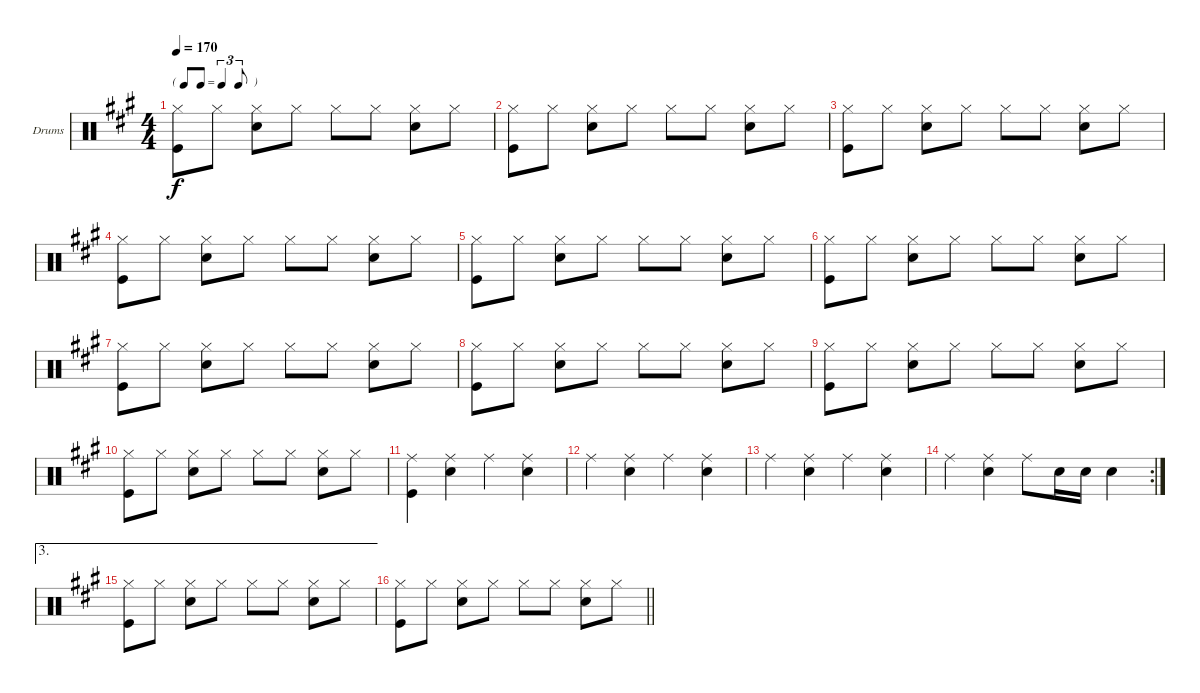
\bracketExtendMode groupsimilarinstruments
\firstSystemTrackNameOrientation horizontal
\otherSystemsTrackNameOrientation horizontal
\track ("Ringo" "Drums") {instrument percussion}
\staff {score}
\articulation defaults
\ts (4 4)
\tf triplet8th
\tempo 170
\clef neutral
\ks a
("Hi-Hat (closed)" "Kick (hit)").8{dy f} "Hi-Hat (closed)".8 ("Hi-Hat (closed)" "Snare (hit) 2").8 "Hi-Hat (closed)".8 "Hi-Hat (closed)".8 "Hi-Hat (closed)".8 ("Hi-Hat (closed)" "Snare (hit) 2").8 "Hi-Hat (closed)".8 |
("Hi-Hat (closed)" "Kick (hit)").8 "Hi-Hat (closed)".8 ("Hi-Hat (closed)" "Snare (hit) 2").8 "Hi-Hat (closed)".8 "Hi-Hat (closed)".8 "Hi-Hat (closed)".8 ("Hi-Hat (closed)" "Snare (hit) 2").8 "Hi-Hat (closed)".8 |
("Hi-Hat (closed)" "Kick (hit)").8 "Hi-Hat (closed)".8 ("Hi-Hat (closed)" "Snare (hit) 2").8 "Hi-Hat (closed)".8 "Hi-Hat (closed)".8 "Hi-Hat (closed)".8 ("Hi-Hat (closed)" "Snare (hit) 2").8 "Hi-Hat (closed)".8 |
("Hi-Hat (closed)" "Kick (hit)").8 "Hi-Hat (closed)".8 ("Hi-Hat (closed)" "Snare (hit) 2").8 "Hi-Hat (closed)".8 "Hi-Hat (closed)".8 "Hi-Hat (closed)".8 ("Hi-Hat (closed)" "Snare (hit) 2").8 "Hi-Hat (closed)".8 |
("Hi-Hat (closed)" "Kick (hit)").8 "Hi-Hat (closed)".8 ("Hi-Hat (closed)" "Snare (hit) 2").8 "Hi-Hat (closed)".8 "Hi-Hat (closed)".8 "Hi-Hat (closed)".8 ("Hi-Hat (closed)" "Snare (hit) 2").8 "Hi-Hat (closed)".8 |
("Hi-Hat (closed)" "Kick (hit)").8 "Hi-Hat (closed)".8 ("Hi-Hat (closed)" "Snare (hit) 2").8 "Hi-Hat (closed)".8 "Hi-Hat (closed)".8 "Hi-Hat (closed)".8 ("Hi-Hat (closed)" "Snare (hit) 2").8 "Hi-Hat (closed)".8 |
("Hi-Hat (closed)" "Kick (hit)").8 "Hi-Hat (closed)".8 ("Hi-Hat (closed)" "Snare (hit) 2").8 "Hi-Hat (closed)".8 "Hi-Hat (closed)".8 "Hi-Hat (closed)".8 ("Hi-Hat (closed)" "Snare (hit) 2").8 "Hi-Hat (closed)".8 |
("Hi-Hat (closed)" "Kick (hit)").8 "Hi-Hat (closed)".8 ("Hi-Hat (closed)" "Snare (hit) 2").8 "Hi-Hat (closed)".8 "Hi-Hat (closed)".8 "Hi-Hat (closed)".8 ("Hi-Hat (closed)" "Snare (hit) 2").8 "Hi-Hat (closed)".8 |
("Hi-Hat (closed)" "Kick (hit)").8 "Hi-Hat (closed)".8 ("Hi-Hat (closed)" "Snare (hit) 2").8 "Hi-Hat (closed)".8 "Hi-Hat (closed)".8 "Hi-Hat (closed)".8 ("Hi-Hat (closed)" "Snare (hit) 2").8 "Hi-Hat (closed)".8 |
("Hi-Hat (closed)" "Kick (hit)").8 "Hi-Hat (closed)".8 ("Hi-Hat (closed)" "Snare (hit) 2").8 "Hi-Hat (closed)".8 "Hi-Hat (closed)".8 "Hi-Hat (closed)".8 ("Hi-Hat (closed)" "Snare (hit) 2").8 "Hi-Hat (closed)".8 |
("Ride (middle)" "Kick (hit)").4 ("Ride (middle)" "Snare (hit) 2").4 "Ride (middle)".4 ("Ride (middle)" "Snare (hit) 2").4 |
"Ride (middle)".4 ("Ride (middle)" "Snare (hit) 2").4 "Ride (middle)".4 ("Ride (middle)" "Snare (hit) 2").4 |
"Ride (middle)".4 ("Ride (middle)" "Snare (hit) 2").4 "Ride (middle)".4 ("Ride (middle)" "Snare (hit) 2").4 |
\rc 2 "Ride (middle)".4
("Ride (middle)" "Snare (hit) 2").4 "Ride (middle)".8 "Snare (hit) 2".16 "Snare (hit) 2".16 "Snare (hit) 2".4 |
\ae 3
("Hi-Hat (closed)" "Kick (hit)").8 "Hi-Hat (closed)".8 ("Hi-Hat (closed)" "Snare (hit) 2").8 "Hi-Hat (closed)".8 "Hi-Hat (closed)".8 "Hi-Hat (closed)".8 ("Hi-Hat (closed)" "Snare (hit) 2").8 "Hi-Hat (closed)".8 |
\barLineRight lightlight
("Hi-Hat (closed)" "Kick (hit)").8 "Hi-Hat (closed)".8 ("Hi-Hat (closed)" "Snare (hit) 2").8 "Hi-Hat (closed)".8 "Hi-Hat (closed)".8 "Hi-Hat (closed)".8 ("Hi-Hat (closed)" "Snare (hit) 2").8 "Hi-Hat (closed)".8
